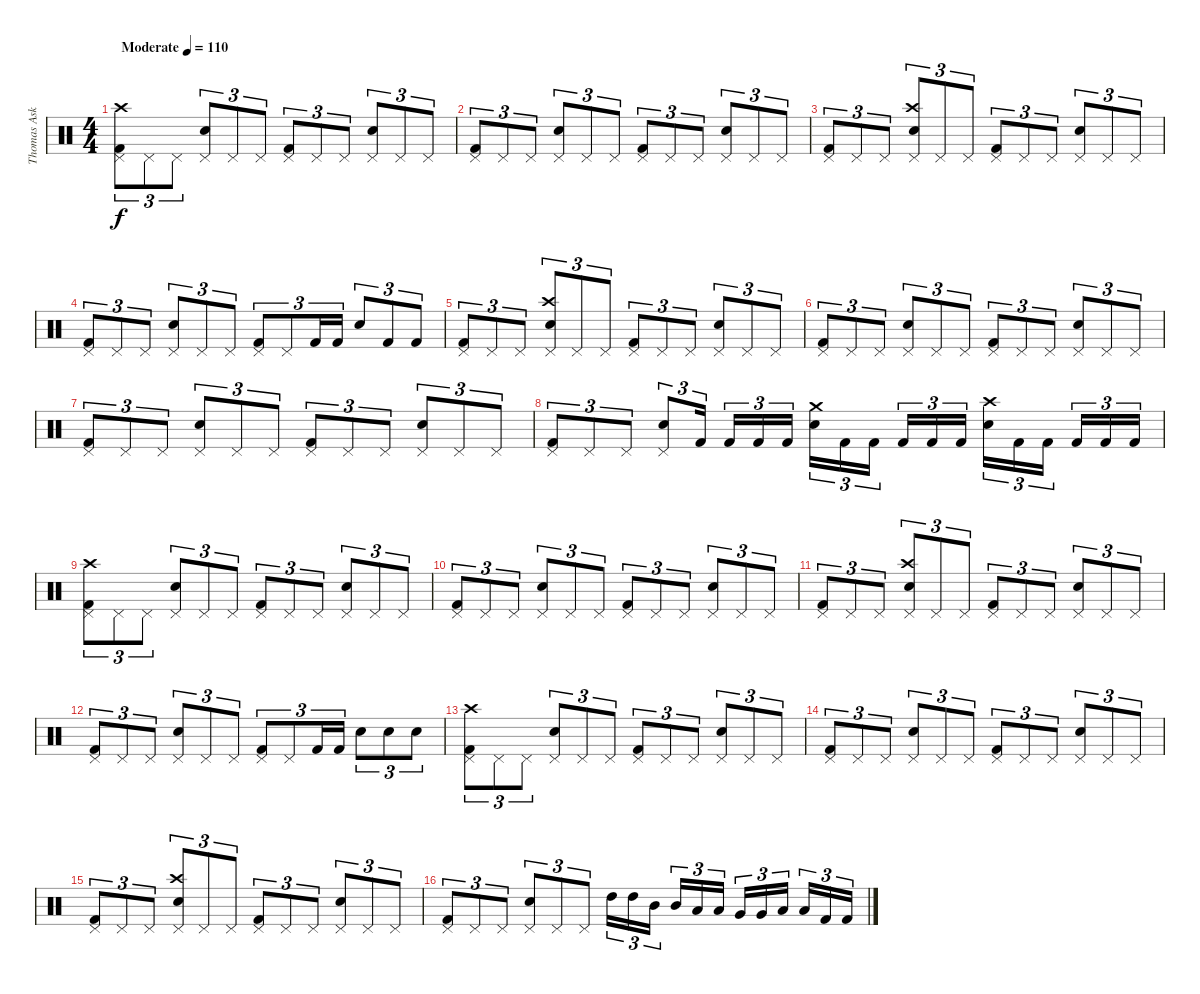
\track ("Thomas Asklund" "Thomas Ask") {instrument percussion}
\staff {score}
\articulation defaults
\ts (4 4)
\tempo (110 "Moderate")
\clef neutral
\ks c
("Pedal Hi-Hat (hit)" "Kick (hit) 2" "Crash high (hit)").8{tu (3 2) dy f} "Pedal Hi-Hat (hit)".8{tu (3 2)} "Pedal Hi-Hat (hit)".8{tu (3 2)} ("Pedal Hi-Hat (hit)" "Snare (hit) 2").8{tu (3 2)} "Pedal Hi-Hat (hit)".8{tu (3 2)} "Pedal Hi-Hat (hit)".8{tu (3 2)} ("Pedal Hi-Hat (hit)" "Kick (hit) 2").8{tu (3 2)} "Pedal Hi-Hat (hit)".8{tu (3 2)} "Pedal Hi-Hat (hit)".8{tu (3 2)} ("Pedal Hi-Hat (hit)" "Snare (hit) 2").8{tu (3 2)} "Pedal Hi-Hat (hit)".8{tu (3 2)} "Pedal Hi-Hat (hit)".8{tu (3 2)} |
("Pedal Hi-Hat (hit)" "Kick (hit) 2").8{tu (3 2)} "Pedal Hi-Hat (hit)".8{tu (3 2)} "Pedal Hi-Hat (hit)".8{tu (3 2)} ("Pedal Hi-Hat (hit)" "Snare (hit) 2").8{tu (3 2)} "Pedal Hi-Hat (hit)".8{tu (3 2)} "Pedal Hi-Hat (hit)".8{tu (3 2)} ("Pedal Hi-Hat (hit)" "Kick (hit) 2").8{tu (3 2)} "Pedal Hi-Hat (hit)".8{tu (3 2)} "Pedal Hi-Hat (hit)".8{tu (3 2)} ("Pedal Hi-Hat (hit)" "Snare (hit) 2").8{tu (3 2)} "Pedal Hi-Hat (hit)".8{tu (3 2)} "Pedal Hi-Hat (hit)".8{tu (3 2)} |
("Pedal Hi-Hat (hit)" "Kick (hit) 2").8{tu (3 2)} "Pedal Hi-Hat (hit)".8{tu (3 2)} "Pedal Hi-Hat (hit)".8{tu (3 2)} ("Pedal Hi-Hat (hit)" "Snare (hit) 2" "Crash high (hit)").8{tu (3 2)} "Pedal Hi-Hat (hit)".8{tu (3 2)} "Pedal Hi-Hat (hit)".8{tu (3 2)} ("Pedal Hi-Hat (hit)" "Kick (hit) 2").8{tu (3 2)} "Pedal Hi-Hat (hit)".8{tu (3 2)} "Pedal Hi-Hat (hit)".8{tu (3 2)} ("Pedal Hi-Hat (hit)" "Snare (hit) 2").8{tu (3 2)} "Pedal Hi-Hat (hit)".8{tu (3 2)} "Pedal Hi-Hat (hit)".8{tu (3 2)} |
("Pedal Hi-Hat (hit)" "Kick (hit) 2").8{tu (3 2)} "Pedal Hi-Hat (hit)".8{tu (3 2)} "Pedal Hi-Hat (hit)".8{tu (3 2)} ("Pedal Hi-Hat (hit)" "Snare (hit) 2").8{tu (3 2)} "Pedal Hi-Hat (hit)".8{tu (3 2)} "Pedal Hi-Hat (hit)".8{tu (3 2)} ("Pedal Hi-Hat (hit)" "Kick (hit) 2").8{tu (3 2)} "Pedal Hi-Hat (hit)".8{tu (3 2)} "Kick (hit) 2".16{tu (3 2)} "Kick (hit) 2".16{tu (3 2)} "Snare (hit) 2".8{tu (3 2)} "Kick (hit) 2".8{tu (3 2)} "Kick (hit) 2".8{tu (3 2)} |
("Pedal Hi-Hat (hit)" "Kick (hit) 2").8{tu (3 2)} "Pedal Hi-Hat (hit)".8{tu (3 2)} "Pedal Hi-Hat (hit)".8{tu (3 2)} ("Pedal Hi-Hat (hit)" "Snare (hit) 2" "Crash high (hit)").8{tu (3 2)} "Pedal Hi-Hat (hit)".8{tu (3 2)} "Pedal Hi-Hat (hit)".8{tu (3 2)} ("Pedal Hi-Hat (hit)" "Kick (hit) 2").8{tu (3 2)} "Pedal Hi-Hat (hit)".8{tu (3 2)} "Pedal Hi-Hat (hit)".8{tu (3 2)} ("Pedal Hi-Hat (hit)" "Snare (hit) 2").8{tu (3 2)} "Pedal Hi-Hat (hit)".8{tu (3 2)} "Pedal Hi-Hat (hit)".8{tu (3 2)} |
("Pedal Hi-Hat (hit)" "Kick (hit) 2").8{tu (3 2)} "Pedal Hi-Hat (hit)".8{tu (3 2)} "Pedal Hi-Hat (hit)".8{tu (3 2)} ("Pedal Hi-Hat (hit)" "Snare (hit) 2").8{tu (3 2)} "Pedal Hi-Hat (hit)".8{tu (3 2)} "Pedal Hi-Hat (hit)".8{tu (3 2)} ("Pedal Hi-Hat (hit)" "Kick (hit) 2").8{tu (3 2)} "Pedal Hi-Hat (hit)".8{tu (3 2)} "Pedal Hi-Hat (hit)".8{tu (3 2)} ("Pedal Hi-Hat (hit)" "Snare (hit) 2").8{tu (3 2)} "Pedal Hi-Hat (hit)".8{tu (3 2)} "Pedal Hi-Hat (hit)".8{tu (3 2)} |
("Pedal Hi-Hat (hit)" "Kick (hit) 2").8{tu (3 2)} "Pedal Hi-Hat (hit)".8{tu (3 2)} "Pedal Hi-Hat (hit)".8{tu (3 2)} ("Pedal Hi-Hat (hit)" "Snare (hit) 2").8{tu (3 2)} "Pedal Hi-Hat (hit)".8{tu (3 2)} "Pedal Hi-Hat (hit)".8{tu (3 2)} ("Pedal Hi-Hat (hit)" "Kick (hit) 2").8{tu (3 2)} "Pedal Hi-Hat (hit)".8{tu (3 2)} "Pedal Hi-Hat (hit)".8{tu (3 2)} ("Pedal Hi-Hat (hit)" "Snare (hit) 2").8{tu (3 2)} "Pedal Hi-Hat (hit)".8{tu (3 2)} "Pedal Hi-Hat (hit)".8{tu (3 2)} |
("Pedal Hi-Hat (hit)" "Kick (hit) 2").8{tu (3 2)} "Pedal Hi-Hat (hit)".8{tu (3 2)} "Pedal Hi-Hat (hit)".8{tu (3 2)} ("Pedal Hi-Hat (hit)" "Snare (hit) 2").8{tu (3 2)} "Kick (hit) 2".16{tu (3 2) beam splitsecondary} "Kick (hit) 2".16{tu (3 2)} "Kick (hit) 2".16{tu (3 2)} "Kick (hit) 2".16{tu (3 2)} ("Crash medium (hit)" "Snare (hit) 2").16{tu (3 2)} "Kick (hit) 2".16{tu (3 2)} "Kick (hit) 2".16{tu (3 2) beam splitsecondary} "Kick (hit) 2".16{tu (3 2)} "Kick (hit) 2".16{tu (3 2)} "Kick (hit) 2".16{tu (3 2)} ("Crash high (hit)" "Snare (hit) 2").16{tu (3 2)} "Kick (hit) 2".16{tu (3 2)} "Kick (hit) 2".16{tu (3 2) beam splitsecondary} "Kick (hit) 2".16{tu (3 2)} "Kick (hit) 2".16{tu (3 2)} "Kick (hit) 2".16{tu (3 2)} |
("Pedal Hi-Hat (hit)" "Kick (hit) 2" "Crash high (hit)").8{tu (3 2)} "Pedal Hi-Hat (hit)".8{tu (3 2)} "Pedal Hi-Hat (hit)".8{tu (3 2)} ("Pedal Hi-Hat (hit)" "Snare (hit) 2").8{tu (3 2)} "Pedal Hi-Hat (hit)".8{tu (3 2)} "Pedal Hi-Hat (hit)".8{tu (3 2)} ("Pedal Hi-Hat (hit)" "Kick (hit) 2").8{tu (3 2)} "Pedal Hi-Hat (hit)".8{tu (3 2)} "Pedal Hi-Hat (hit)".8{tu (3 2)} ("Pedal Hi-Hat (hit)" "Snare (hit) 2").8{tu (3 2)} "Pedal Hi-Hat (hit)".8{tu (3 2)} "Pedal Hi-Hat (hit)".8{tu (3 2)} |
("Pedal Hi-Hat (hit)" "Kick (hit) 2").8{tu (3 2)} "Pedal Hi-Hat (hit)".8{tu (3 2)} "Pedal Hi-Hat (hit)".8{tu (3 2)} ("Pedal Hi-Hat (hit)" "Snare (hit) 2").8{tu (3 2)} "Pedal Hi-Hat (hit)".8{tu (3 2)} "Pedal Hi-Hat (hit)".8{tu (3 2)} ("Pedal Hi-Hat (hit)" "Kick (hit) 2").8{tu (3 2)} "Pedal Hi-Hat (hit)".8{tu (3 2)} "Pedal Hi-Hat (hit)".8{tu (3 2)} ("Pedal Hi-Hat (hit)" "Snare (hit) 2").8{tu (3 2)} "Pedal Hi-Hat (hit)".8{tu (3 2)} "Pedal Hi-Hat (hit)".8{tu (3 2)} |
("Pedal Hi-Hat (hit)" "Kick (hit) 2").8{tu (3 2)} "Pedal Hi-Hat (hit)".8{tu (3 2)} "Pedal Hi-Hat (hit)".8{tu (3 2)} ("Pedal Hi-Hat (hit)" "Snare (hit) 2" "Crash high (hit)").8{tu (3 2)} "Pedal Hi-Hat (hit)".8{tu (3 2)} "Pedal Hi-Hat (hit)".8{tu (3 2)} ("Pedal Hi-Hat (hit)" "Kick (hit) 2").8{tu (3 2)} "Pedal Hi-Hat (hit)".8{tu (3 2)} "Pedal Hi-Hat (hit)".8{tu (3 2)} ("Pedal Hi-Hat (hit)" "Snare (hit) 2").8{tu (3 2)} "Pedal Hi-Hat (hit)".8{tu (3 2)} "Pedal Hi-Hat (hit)".8{tu (3 2)} |
("Pedal Hi-Hat (hit)" "Kick (hit) 2").8{tu (3 2)} "Pedal Hi-Hat (hit)".8{tu (3 2)} "Pedal Hi-Hat (hit)".8{tu (3 2)} ("Pedal Hi-Hat (hit)" "Snare (hit) 2").8{tu (3 2)} "Pedal Hi-Hat (hit)".8{tu (3 2)} "Pedal Hi-Hat (hit)".8{tu (3 2)} ("Pedal Hi-Hat (hit)" "Kick (hit) 2").8{tu (3 2)} "Pedal Hi-Hat (hit)".8{tu (3 2)} "Kick (hit) 2".16{tu (3 2)} "Kick (hit) 2".16{tu (3 2)} "Snare (hit) 2".8{tu (3 2)} "Snare (hit) 2".8{tu (3 2)} "Snare (hit) 2".8{tu (3 2)} |
("Pedal Hi-Hat (hit)" "Kick (hit) 2" "Crash high (hit)").8{tu (3 2)} "Pedal Hi-Hat (hit)".8{tu (3 2)} "Pedal Hi-Hat (hit)".8{tu (3 2)} ("Pedal Hi-Hat (hit)" "Snare (hit) 2").8{tu (3 2)} "Pedal Hi-Hat (hit)".8{tu (3 2)} "Pedal Hi-Hat (hit)".8{tu (3 2)} ("Pedal Hi-Hat (hit)" "Kick (hit) 2").8{tu (3 2)} "Pedal Hi-Hat (hit)".8{tu (3 2)} "Pedal Hi-Hat (hit)".8{tu (3 2)} ("Pedal Hi-Hat (hit)" "Snare (hit) 2").8{tu (3 2)} "Pedal Hi-Hat (hit)".8{tu (3 2)} "Pedal Hi-Hat (hit)".8{tu (3 2)} |
("Pedal Hi-Hat (hit)" "Kick (hit) 2").8{tu (3 2)} "Pedal Hi-Hat (hit)".8{tu (3 2)} "Pedal Hi-Hat (hit)".8{tu (3 2)} ("Pedal Hi-Hat (hit)" "Snare (hit) 2").8{tu (3 2)} "Pedal Hi-Hat (hit)".8{tu (3 2)} "Pedal Hi-Hat (hit)".8{tu (3 2)} ("Pedal Hi-Hat (hit)" "Kick (hit) 2").8{tu (3 2)} "Pedal Hi-Hat (hit)".8{tu (3 2)} "Pedal Hi-Hat (hit)".8{tu (3 2)} ("Pedal Hi-Hat (hit)" "Snare (hit) 2").8{tu (3 2)} "Pedal Hi-Hat (hit)".8{tu (3 2)} "Pedal Hi-Hat (hit)".8{tu (3 2)} |
("Pedal Hi-Hat (hit)" "Kick (hit) 2").8{tu (3 2)} "Pedal Hi-Hat (hit)".8{tu (3 2)} "Pedal Hi-Hat (hit)".8{tu (3 2)} ("Pedal Hi-Hat (hit)" "Snare (hit) 2" "Crash high (hit)").8{tu (3 2)} "Pedal Hi-Hat (hit)".8{tu (3 2)} "Pedal Hi-Hat (hit)".8{tu (3 2)} ("Pedal Hi-Hat (hit)" "Kick (hit) 2").8{tu (3 2)} "Pedal Hi-Hat (hit)".8{tu (3 2)} "Pedal Hi-Hat (hit)".8{tu (3 2)} ("Pedal Hi-Hat (hit)" "Snare (hit) 2").8{tu (3 2)} "Pedal Hi-Hat (hit)".8{tu (3 2)} "Pedal Hi-Hat (hit)".8{tu (3 2)} |
("Pedal Hi-Hat (hit)" "Kick (hit) 2").8{tu (3 2)} "Pedal Hi-Hat (hit)".8{tu (3 2)} "Pedal Hi-Hat (hit)".8{tu (3 2)} ("Pedal Hi-Hat (hit)" "Snare (hit) 2").8{tu (3 2)} "Pedal Hi-Hat (hit)".8{tu (3 2)} "Pedal Hi-Hat (hit)".8{tu (3 2)} "High Tom (hit)".16{tu (3 2)} "High Tom (hit)".16{tu (3 2)} "Mid Tom (hit)".16{tu (3 2) beam splitsecondary} "Mid Tom (hit)".16{tu (3 2)} "Low Tom (hit)".16{tu (3 2)} "Low Tom (hit)".16{tu (3 2)} "Very Low Tom (hit)".16{tu (3 2)} "Very Low Tom (hit)".16{tu (3 2)} "Low Floor Tom (hit)".16{tu (3 2) beam splitsecondary} "Low Floor Tom (hit)".16{tu (3 2)} "Kick (hit) 2".16{tu (3 2)} "Kick (hit) 2".16{tu (3 2)}
